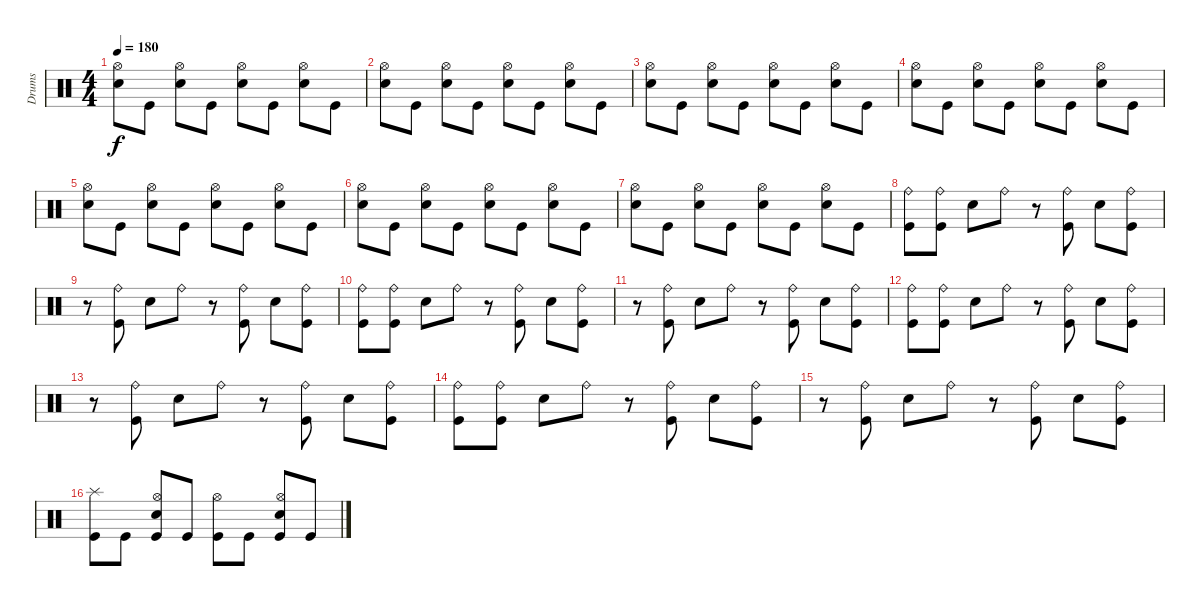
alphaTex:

\track ("Drums" "Drums") {instrument percussion}
\staff {score}
\articulation defaults
\ts (4 4)
\tempo 180
\clef neutral
\ks c
("Electric Snare (hit)" "Hi-Hat (open)").8{dy f} "Kick (hit)".8 ("Electric Snare (hit)" "Hi-Hat (open)").8 "Kick (hit)".8 ("Electric Snare (hit)" "Hi-Hat (open)").8 "Kick (hit)".8 ("Electric Snare (hit)" "Hi-Hat (open)").8 "Kick (hit)".8 |
("Electric Snare (hit)" "Hi-Hat (open)").8 "Kick (hit)".8 ("Electric Snare (hit)" "Hi-Hat (open)").8 "Kick (hit)".8 ("Electric Snare (hit)" "Hi-Hat (open)").8 "Kick (hit)".8 ("Electric Snare (hit)" "Hi-Hat (open)").8 "Kick (hit)".8 |
("Electric Snare (hit)" "Hi-Hat (open)").8 "Kick (hit)".8 ("Electric Snare (hit)" "Hi-Hat (open)").8 "Kick (hit)".8 ("Electric Snare (hit)" "Hi-Hat (open)").8 "Kick (hit)".8 ("Electric Snare (hit)" "Hi-Hat (open)").8 "Kick (hit)".8 |
("Electric Snare (hit)" "Hi-Hat (open)").8 "Kick (hit)".8 ("Electric Snare (hit)" "Hi-Hat (open)").8 "Kick (hit)".8 ("Electric Snare (hit)" "Hi-Hat (open)").8 "Kick (hit)".8 ("Electric Snare (hit)" "Hi-Hat (open)").8 "Kick (hit)".8 |
("Electric Snare (hit)" "Hi-Hat (open)").8 "Kick (hit)".8 ("Electric Snare (hit)" "Hi-Hat (open)").8 "Kick (hit)".8 ("Electric Snare (hit)" "Hi-Hat (open)").8 "Kick (hit)".8 ("Electric Snare (hit)" "Hi-Hat (open)").8 "Kick (hit)".8 |
("Electric Snare (hit)" "Hi-Hat (open)").8 "Kick (hit)".8 ("Electric Snare (hit)" "Hi-Hat (open)").8 "Kick (hit)".8 ("Electric Snare (hit)" "Hi-Hat (open)").8 "Kick (hit)".8 ("Electric Snare (hit)" "Hi-Hat (open)").8 "Kick (hit)".8 |
("Electric Snare (hit)" "Hi-Hat (open)").8 "Kick (hit)".8 ("Electric Snare (hit)" "Hi-Hat (open)").8 "Kick (hit)".8 ("Electric Snare (hit)" "Hi-Hat (open)").8 "Kick (hit)".8 ("Electric Snare (hit)" "Hi-Hat (open)").8 "Kick (hit)".8 |
("Kick (hit)" "Ride (bell)").8 ("Kick (hit)" "Ride (bell)").8 "Electric Snare (hit)".8 "Ride (bell)".8 r.8 ("Kick (hit)" "Ride (bell)").8 "Electric Snare (hit)".8 ("Kick (hit)" "Ride (bell)").8 |
r.8 ("Kick (hit)" "Ride (bell)").8 "Electric Snare (hit)".8 "Ride (bell)".8 r.8 ("Kick (hit)" "Ride (bell)").8 "Electric Snare (hit)".8 ("Kick (hit)" "Ride (bell)").8 |
("Kick (hit)" "Ride (bell)").8 ("Kick (hit)" "Ride (bell)").8 "Electric Snare (hit)".8 "Ride (bell)".8 r.8 ("Kick (hit)" "Ride (bell)").8 "Electric Snare (hit)".8 ("Kick (hit)" "Ride (bell)").8 |
r.8 ("Kick (hit)" "Ride (bell)").8 "Electric Snare (hit)".8 "Ride (bell)".8 r.8 ("Kick (hit)" "Ride (bell)").8 "Electric Snare (hit)".8 ("Kick (hit)" "Ride (bell)").8 |
("Kick (hit)" "Ride (bell)").8 ("Kick (hit)" "Ride (bell)").8 "Electric Snare (hit)".8 "Ride (bell)".8 r.8 ("Kick (hit)" "Ride (bell)").8 "Electric Snare (hit)".8 ("Kick (hit)" "Ride (bell)").8 |
r.8 ("Kick (hit)" "Ride (bell)").8 "Electric Snare (hit)".8 "Ride (bell)".8 r.8 ("Kick (hit)" "Ride (bell)").8 "Electric Snare (hit)".8 ("Kick (hit)" "Ride (bell)").8 |
("Kick (hit)" "Ride (bell)").8 ("Kick (hit)" "Ride (bell)").8 "Electric Snare (hit)".8 "Ride (bell)".8 r.8 ("Kick (hit)" "Ride (bell)").8 "Electric Snare (hit)".8 ("Kick (hit)" "Ride (bell)").8 |
r.8 ("Kick (hit)" "Ride (bell)").8 "Electric Snare (hit)".8 "Ride (bell)".8 r.8 ("Kick (hit)" "Ride (bell)").8 "Electric Snare (hit)".8 ("Kick (hit)" "Ride (bell)").8 |
("Kick (hit)" "Splash (hit)").8 "Kick (hit)".8 ("Kick (hit)" "Electric Snare (hit)" "Hi-Hat (open)").8 "Kick (hit)".8 ("Kick (hit)" "Hi-Hat (open)").8 "Kick (hit)".8 ("Kick (hit)" "Electric Snare (hit)" "Hi-Hat (open)").8 "Kick (hit)".8
